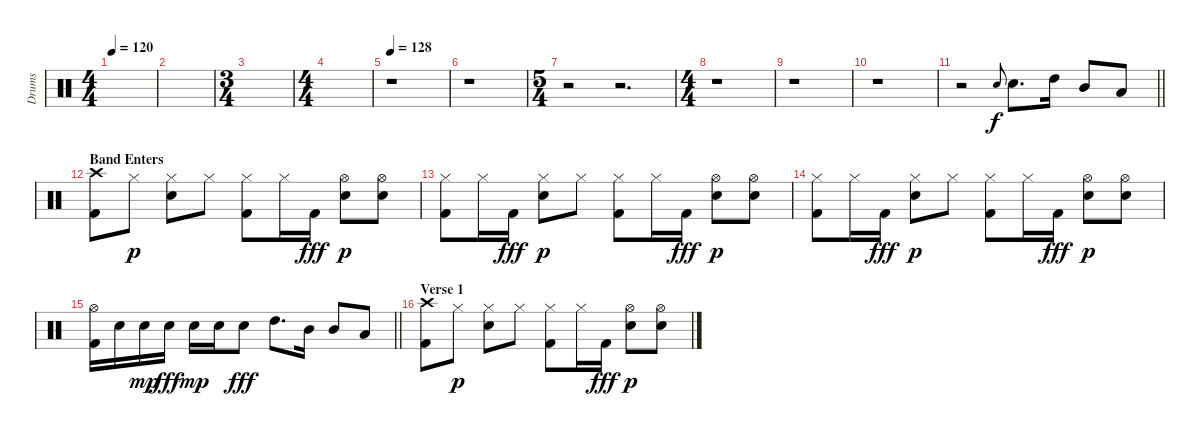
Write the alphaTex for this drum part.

\track ("Drums" "Drums") {instrument percussion}
\staff {score}
\articulation defaults
\ts (4 4)
\tempo 120
\clef neutral
\ks c
|
|
\ts (3 4)
|
\ts (4 4)
|
\tempo 128
r.1 |
r.1 |
\ts (5 4)
r.2 r.2{d} |
\ts (4 4)
r.1 |
r.1 |
r.1 |
\barLineRight lightlight
r.2 "Electric Snare (hit)".8{gr onbeat} "Electric Snare (hit)".8{d} "High Tom (hit)".16 "Mid Tom (hit)".8 "Low Tom (hit)".8 |
\section ("" "Band Enters")
("Kick (hit) 2" "Crash high (hit)").8 "Hi-Hat (closed)".8{dy p} ("Electric Snare (hit)" "Hi-Hat (closed)").8 "Hi-Hat (closed)".8 ("Kick (hit) 2" "Hi-Hat (closed)").8 "Hi-Hat (closed)".16 "Kick (hit) 2".16{dy fff} ("Electric Snare (hit)" "Hi-Hat (open)").8{dy p} ("Electric Snare (hit)" "Hi-Hat (open)").8 |
("Kick (hit) 2" "Hi-Hat (closed)").8 "Hi-Hat (closed)".16 "Kick (hit) 2".16{dy fff} ("Electric Snare (hit)" "Hi-Hat (closed)").8{dy p} "Hi-Hat (closed)".8 ("Kick (hit) 2" "Hi-Hat (closed)").8 "Hi-Hat (closed)".16 "Kick (hit) 2".16{dy fff} ("Electric Snare (hit)" "Hi-Hat (open)").8{dy p} ("Electric Snare (hit)" "Hi-Hat (open)").8 |
("Kick (hit) 2" "Hi-Hat (closed)").8 "Hi-Hat (closed)".16 "Kick (hit) 2".16{dy fff} ("Electric Snare (hit)" "Hi-Hat (closed)").8{dy p} "Hi-Hat (closed)".8 ("Kick (hit) 2" "Hi-Hat (closed)").8 "Hi-Hat (closed)".16 "Kick (hit) 2".16{dy fff} ("Electric Snare (hit)" "Hi-Hat (open)").8{dy p} ("Electric Snare (hit)" "Hi-Hat (open)").8 |
\barLineRight lightlight
("Kick (hit) 2" "Hi-Hat (open)").16 "Electric Snare (hit)".16 "Electric Snare (hit)".16{dy mp} "Electric Snare (hit)".16{dy fff} "Electric Snare (hit)".16{dy mp} "Electric Snare (hit)".16 "Electric Snare (hit)".8{dy fff} "High Tom (hit)".8{d} "Mid Tom (hit)".16 "Mid Tom (hit)".8 "Low Tom (hit)".8 |
\section ("" "Verse 1")
("Kick (hit) 2" "Crash high (hit)").8 "Hi-Hat (closed)".8{dy p} ("Electric Snare (hit)" "Hi-Hat (closed)").8 "Hi-Hat (closed)".8 ("Kick (hit) 2" "Hi-Hat (closed)").8 "Hi-Hat (closed)".16 "Kick (hit) 2".16{dy fff} ("Electric Snare (hit)" "Hi-Hat (open)").8{dy p} ("Electric Snare (hit)" "Hi-Hat (open)").8
